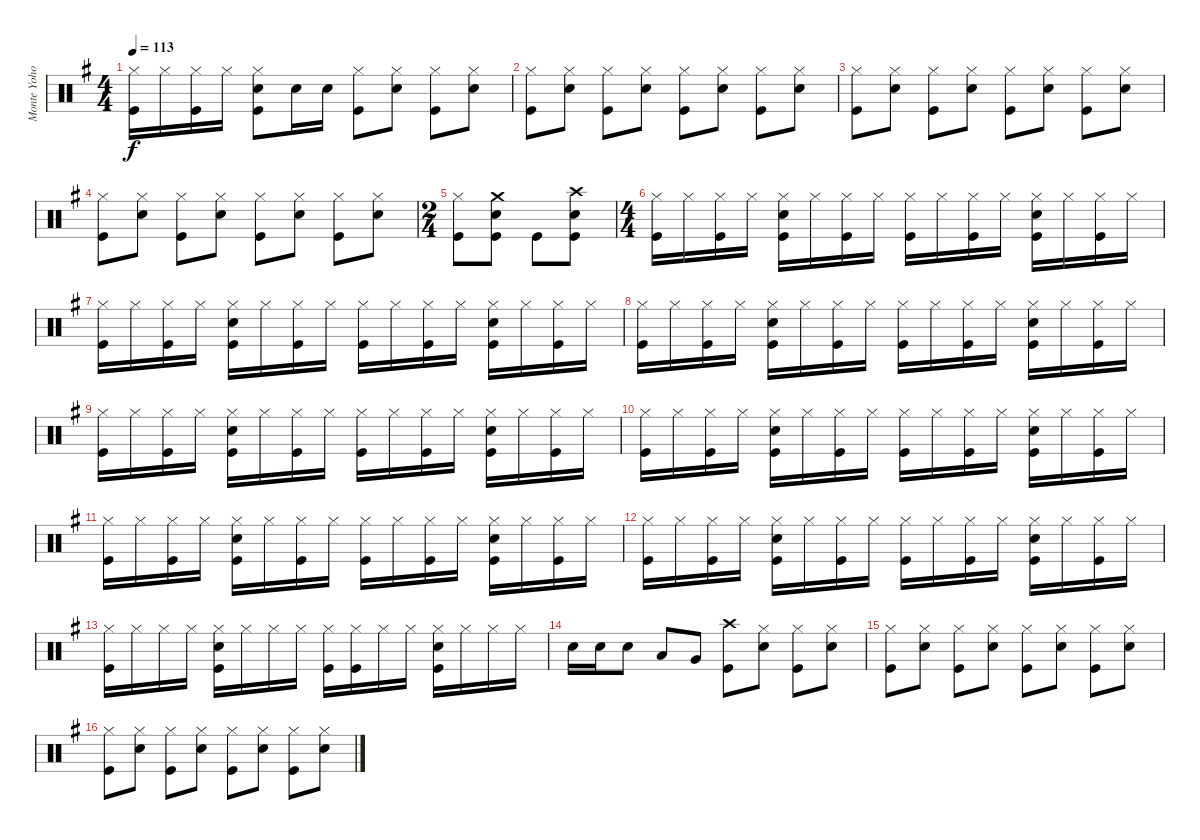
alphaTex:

\track ("Monte Yoho Drums" "Monte Yoho") {instrument percussion}
\staff {score}
\articulation defaults
\ts (4 4)
\tempo 113
\clef neutral
\ks eminor
("Hi-Hat (closed)" "Kick (hit)").16{dy f} "Hi-Hat (closed)".16 ("Hi-Hat (closed)" "Kick (hit)").16 "Hi-Hat (closed)".16 ("Hi-Hat (closed)" "Snare (hit) 2" "Kick (hit)").8 "Snare (hit) 2".16 "Snare (hit) 2".16 ("Hi-Hat (closed)" "Kick (hit)").8 ("Hi-Hat (closed)" "Snare (hit) 2").8 ("Hi-Hat (closed)" "Kick (hit)").8 ("Hi-Hat (closed)" "Snare (hit) 2").8 |
("Hi-Hat (closed)" "Kick (hit)").8 ("Hi-Hat (closed)" "Snare (hit) 2").8 ("Hi-Hat (closed)" "Kick (hit)").8 ("Hi-Hat (closed)" "Snare (hit) 2").8 ("Hi-Hat (closed)" "Kick (hit)").8 ("Hi-Hat (closed)" "Snare (hit) 2").8 ("Hi-Hat (closed)" "Kick (hit)").8 ("Hi-Hat (closed)" "Snare (hit) 2").8 |
("Hi-Hat (closed)" "Kick (hit)").8 ("Hi-Hat (closed)" "Snare (hit) 2").8 ("Hi-Hat (closed)" "Kick (hit)").8 ("Hi-Hat (closed)" "Snare (hit) 2").8 ("Hi-Hat (closed)" "Kick (hit)").8 ("Hi-Hat (closed)" "Snare (hit) 2").8 ("Hi-Hat (closed)" "Kick (hit)").8 ("Hi-Hat (closed)" "Snare (hit) 2").8 |
("Hi-Hat (closed)" "Kick (hit)").8 ("Hi-Hat (closed)" "Snare (hit) 2").8 ("Hi-Hat (closed)" "Kick (hit)").8 ("Hi-Hat (closed)" "Snare (hit) 2").8 ("Hi-Hat (closed)" "Kick (hit)").8 ("Hi-Hat (closed)" "Snare (hit) 2").8 ("Hi-Hat (closed)" "Kick (hit)").8 ("Hi-Hat (closed)" "Snare (hit) 2").8 |
\ts (2 4)
("Hi-Hat (closed)" "Kick (hit)").8 ("Crash medium (hit)" "Snare (hit) 2" "Kick (hit)").8 "Kick (hit)".8 ("Crash high (hit)" "Snare (hit) 2" "Kick (hit)").8 |
\ts (4 4)
("Hi-Hat (closed)" "Kick (hit)").16 "Hi-Hat (closed)".16 ("Hi-Hat (closed)" "Kick (hit)").16 "Hi-Hat (closed)".16 ("Hi-Hat (closed)" "Snare (hit) 2" "Kick (hit)").16 "Hi-Hat (closed)".16 ("Hi-Hat (closed)" "Kick (hit)").16 "Hi-Hat (closed)".16 ("Hi-Hat (closed)" "Kick (hit)").16 "Hi-Hat (closed)".16 ("Hi-Hat (closed)" "Kick (hit)").16 "Hi-Hat (closed)".16 ("Hi-Hat (closed)" "Snare (hit) 2" "Kick (hit)").16 "Hi-Hat (closed)".16 ("Hi-Hat (closed)" "Kick (hit)").16 "Hi-Hat (closed)".16 |
("Hi-Hat (closed)" "Kick (hit)").16 "Hi-Hat (closed)".16 ("Hi-Hat (closed)" "Kick (hit)").16 "Hi-Hat (closed)".16 ("Hi-Hat (closed)" "Snare (hit) 2" "Kick (hit)").16 "Hi-Hat (closed)".16 ("Hi-Hat (closed)" "Kick (hit)").16 "Hi-Hat (closed)".16 ("Hi-Hat (closed)" "Kick (hit)").16 "Hi-Hat (closed)".16 ("Hi-Hat (closed)" "Kick (hit)").16 "Hi-Hat (closed)".16 ("Hi-Hat (closed)" "Snare (hit) 2" "Kick (hit)").16 "Hi-Hat (closed)".16 ("Hi-Hat (closed)" "Kick (hit)").16 "Hi-Hat (closed)".16 |
("Hi-Hat (closed)" "Kick (hit)").16 "Hi-Hat (closed)".16 ("Hi-Hat (closed)" "Kick (hit)").16 "Hi-Hat (closed)".16 ("Hi-Hat (closed)" "Snare (hit) 2" "Kick (hit)").16 "Hi-Hat (closed)".16 ("Hi-Hat (closed)" "Kick (hit)").16 "Hi-Hat (closed)".16 ("Hi-Hat (closed)" "Kick (hit)").16 "Hi-Hat (closed)".16 ("Hi-Hat (closed)" "Kick (hit)").16 "Hi-Hat (closed)".16 ("Hi-Hat (closed)" "Snare (hit) 2" "Kick (hit)").16 "Hi-Hat (closed)".16 ("Hi-Hat (closed)" "Kick (hit)").16 "Hi-Hat (closed)".16 |
("Hi-Hat (closed)" "Kick (hit)").16 "Hi-Hat (closed)".16 ("Hi-Hat (closed)" "Kick (hit)").16 "Hi-Hat (closed)".16 ("Hi-Hat (closed)" "Snare (hit) 2" "Kick (hit)").16 "Hi-Hat (closed)".16 ("Hi-Hat (closed)" "Kick (hit)").16 "Hi-Hat (closed)".16 ("Hi-Hat (closed)" "Kick (hit)").16 "Hi-Hat (closed)".16 ("Hi-Hat (closed)" "Kick (hit)").16 "Hi-Hat (closed)".16 ("Hi-Hat (closed)" "Snare (hit) 2" "Kick (hit)").16 "Hi-Hat (closed)".16 ("Hi-Hat (closed)" "Kick (hit)").16 "Hi-Hat (closed)".16 |
("Hi-Hat (closed)" "Kick (hit)").16 "Hi-Hat (closed)".16 ("Hi-Hat (closed)" "Kick (hit)").16 "Hi-Hat (closed)".16 ("Hi-Hat (closed)" "Snare (hit) 2" "Kick (hit)").16 "Hi-Hat (closed)".16 ("Hi-Hat (closed)" "Kick (hit)").16 "Hi-Hat (closed)".16 ("Hi-Hat (closed)" "Kick (hit)").16 "Hi-Hat (closed)".16 ("Hi-Hat (closed)" "Kick (hit)").16 "Hi-Hat (closed)".16 ("Hi-Hat (closed)" "Snare (hit) 2" "Kick (hit)").16 "Hi-Hat (closed)".16 ("Hi-Hat (closed)" "Kick (hit)").16 "Hi-Hat (closed)".16 |
("Hi-Hat (closed)" "Kick (hit)").16 "Hi-Hat (closed)".16 ("Hi-Hat (closed)" "Kick (hit)").16 "Hi-Hat (closed)".16 ("Hi-Hat (closed)" "Snare (hit) 2" "Kick (hit)").16 "Hi-Hat (closed)".16 ("Hi-Hat (closed)" "Kick (hit)").16 "Hi-Hat (closed)".16 ("Hi-Hat (closed)" "Kick (hit)").16 "Hi-Hat (closed)".16 ("Hi-Hat (closed)" "Kick (hit)").16 "Hi-Hat (closed)".16 ("Hi-Hat (closed)" "Snare (hit) 2" "Kick (hit)").16 "Hi-Hat (closed)".16 ("Hi-Hat (closed)" "Kick (hit)").16 "Hi-Hat (closed)".16 |
("Hi-Hat (closed)" "Kick (hit)").16 "Hi-Hat (closed)".16 ("Hi-Hat (closed)" "Kick (hit)").16 "Hi-Hat (closed)".16 ("Hi-Hat (closed)" "Snare (hit) 2" "Kick (hit)").16 "Hi-Hat (closed)".16 ("Hi-Hat (closed)" "Kick (hit)").16 "Hi-Hat (closed)".16 ("Hi-Hat (closed)" "Kick (hit)").16 "Hi-Hat (closed)".16 ("Hi-Hat (closed)" "Kick (hit)").16 "Hi-Hat (closed)".16 ("Hi-Hat (closed)" "Snare (hit) 2" "Kick (hit)").16 "Hi-Hat (closed)".16 ("Hi-Hat (closed)" "Kick (hit)").16 "Hi-Hat (closed)".16 |
("Hi-Hat (closed)" "Kick (hit)").16 "Hi-Hat (closed)".16 "Hi-Hat (closed)".16 "Hi-Hat (closed)".16 ("Hi-Hat (closed)" "Snare (hit) 2" "Kick (hit)").16 "Hi-Hat (closed)".16 "Hi-Hat (closed)".16 "Hi-Hat (closed)".16 ("Hi-Hat (closed)" "Kick (hit)").16 ("Hi-Hat (closed)" "Kick (hit)").16 "Hi-Hat (closed)".16 "Hi-Hat (closed)".16 ("Hi-Hat (closed)" "Snare (hit) 2" "Kick (hit)").16 "Hi-Hat (closed)".16 "Hi-Hat (closed)".16 "Hi-Hat (closed)".16 |
"Snare (hit) 2".16 "Snare (hit) 2".16 "Snare (hit) 2".8 "Low Tom (hit)".8 "Very Low Tom (hit)".8 ("Crash high (hit)" "Kick (hit)").8 ("Hi-Hat (closed)" "Snare (hit) 2").8 ("Hi-Hat (closed)" "Kick (hit)").8 ("Hi-Hat (closed)" "Snare (hit) 2").8 |
("Hi-Hat (closed)" "Kick (hit)").8 ("Hi-Hat (closed)" "Snare (hit) 2").8 ("Hi-Hat (closed)" "Kick (hit)").8 ("Hi-Hat (closed)" "Snare (hit) 2").8 ("Hi-Hat (closed)" "Kick (hit)").8 ("Hi-Hat (closed)" "Snare (hit) 2").8 ("Hi-Hat (closed)" "Kick (hit)").8 ("Hi-Hat (closed)" "Snare (hit) 2").8 |
("Hi-Hat (closed)" "Kick (hit)").8 ("Hi-Hat (closed)" "Snare (hit) 2").8 ("Hi-Hat (closed)" "Kick (hit)").8 ("Hi-Hat (closed)" "Snare (hit) 2").8 ("Hi-Hat (closed)" "Kick (hit)").8 ("Hi-Hat (closed)" "Snare (hit) 2").8 ("Hi-Hat (closed)" "Kick (hit)").8 ("Hi-Hat (closed)" "Snare (hit) 2").8
